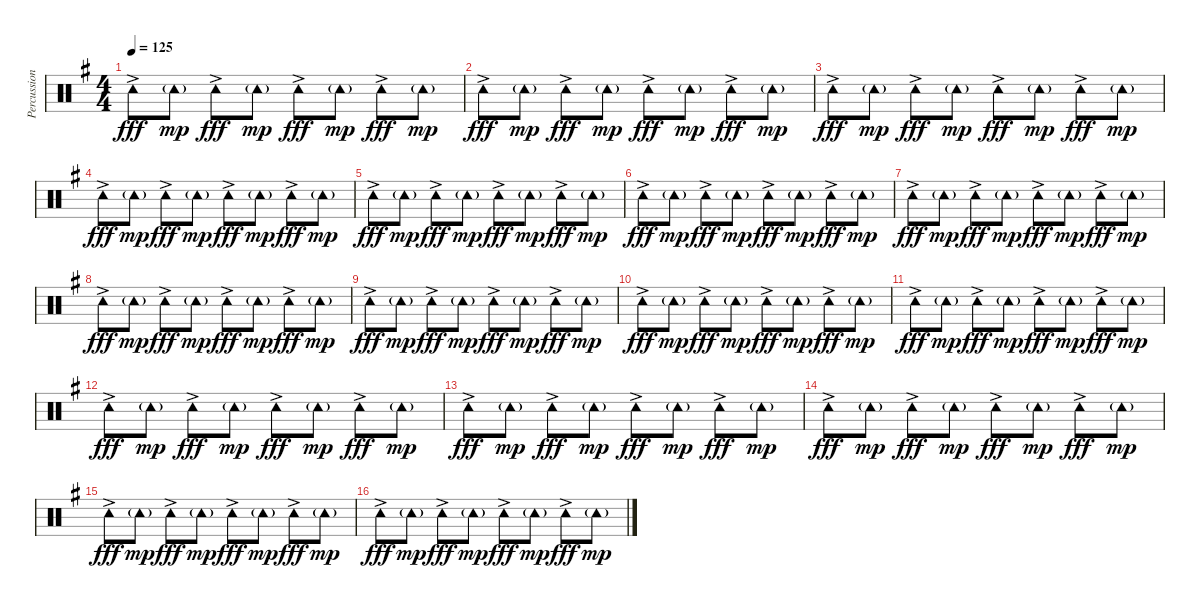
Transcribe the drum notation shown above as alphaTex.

\track ("Percussion" "Percussion") {instrument percussion}
\staff {score}
\articulation defaults
\ts (4 4)
\tempo 125
\clef neutral
\ks g "Tambourine (hit)"{ac}.8{dy fff} "Tambourine (hit)"{g}.8{dy mp} "Tambourine (hit)"{ac}.8{dy fff} "Tambourine (hit)"{g}.8{dy mp} "Tambourine (hit)"{ac}.8{dy fff} "Tambourine (hit)"{g}.8{dy mp} "Tambourine (hit)"{ac}.8{dy fff} "Tambourine (hit)"{g}.8{dy mp}
|
"Tambourine (hit)"{ac}.8{dy fff} "Tambourine (hit)"{g}.8{dy mp} "Tambourine (hit)"{ac}.8{dy fff} "Tambourine (hit)"{g}.8{dy mp} "Tambourine (hit)"{ac}.8{dy fff} "Tambourine (hit)"{g}.8{dy mp} "Tambourine (hit)"{ac}.8{dy fff} "Tambourine (hit)"{g}.8{dy mp} |
"Tambourine (hit)"{ac}.8{dy fff} "Tambourine (hit)"{g}.8{dy mp} "Tambourine (hit)"{ac}.8{dy fff} "Tambourine (hit)"{g}.8{dy mp} "Tambourine (hit)"{ac}.8{dy fff} "Tambourine (hit)"{g}.8{dy mp} "Tambourine (hit)"{ac}.8{dy fff} "Tambourine (hit)"{g}.8{dy mp} |
"Tambourine (hit)"{ac}.8{dy fff} "Tambourine (hit)"{g}.8{dy mp} "Tambourine (hit)"{ac}.8{dy fff} "Tambourine (hit)"{g}.8{dy mp} "Tambourine (hit)"{ac}.8{dy fff} "Tambourine (hit)"{g}.8{dy mp} "Tambourine (hit)"{ac}.8{dy fff} "Tambourine (hit)"{g}.8{dy mp} |
"Tambourine (hit)"{ac}.8{dy fff} "Tambourine (hit)"{g}.8{dy mp} "Tambourine (hit)"{ac}.8{dy fff} "Tambourine (hit)"{g}.8{dy mp} "Tambourine (hit)"{ac}.8{dy fff} "Tambourine (hit)"{g}.8{dy mp} "Tambourine (hit)"{ac}.8{dy fff} "Tambourine (hit)"{g}.8{dy mp} |
"Tambourine (hit)"{ac}.8{dy fff} "Tambourine (hit)"{g}.8{dy mp} "Tambourine (hit)"{ac}.8{dy fff} "Tambourine (hit)"{g}.8{dy mp} "Tambourine (hit)"{ac}.8{dy fff} "Tambourine (hit)"{g}.8{dy mp} "Tambourine (hit)"{ac}.8{dy fff} "Tambourine (hit)"{g}.8{dy mp} |
"Tambourine (hit)"{ac}.8{dy fff} "Tambourine (hit)"{g}.8{dy mp} "Tambourine (hit)"{ac}.8{dy fff} "Tambourine (hit)"{g}.8{dy mp} "Tambourine (hit)"{ac}.8{dy fff} "Tambourine (hit)"{g}.8{dy mp} "Tambourine (hit)"{ac}.8{dy fff} "Tambourine (hit)"{g}.8{dy mp} |
"Tambourine (hit)"{ac}.8{dy fff} "Tambourine (hit)"{g}.8{dy mp} "Tambourine (hit)"{ac}.8{dy fff} "Tambourine (hit)"{g}.8{dy mp} "Tambourine (hit)"{ac}.8{dy fff} "Tambourine (hit)"{g}.8{dy mp} "Tambourine (hit)"{ac}.8{dy fff} "Tambourine (hit)"{g}.8{dy mp} |
"Tambourine (hit)"{ac}.8{dy fff} "Tambourine (hit)"{g}.8{dy mp} "Tambourine (hit)"{ac}.8{dy fff} "Tambourine (hit)"{g}.8{dy mp} "Tambourine (hit)"{ac}.8{dy fff} "Tambourine (hit)"{g}.8{dy mp} "Tambourine (hit)"{ac}.8{dy fff} "Tambourine (hit)"{g}.8{dy mp} |
"Tambourine (hit)"{ac}.8{dy fff} "Tambourine (hit)"{g}.8{dy mp} "Tambourine (hit)"{ac}.8{dy fff} "Tambourine (hit)"{g}.8{dy mp} "Tambourine (hit)"{ac}.8{dy fff} "Tambourine (hit)"{g}.8{dy mp} "Tambourine (hit)"{ac}.8{dy fff} "Tambourine (hit)"{g}.8{dy mp} |
"Tambourine (hit)"{ac}.8{dy fff} "Tambourine (hit)"{g}.8{dy mp} "Tambourine (hit)"{ac}.8{dy fff} "Tambourine (hit)"{g}.8{dy mp} "Tambourine (hit)"{ac}.8{dy fff} "Tambourine (hit)"{g}.8{dy mp} "Tambourine (hit)"{ac}.8{dy fff} "Tambourine (hit)"{g}.8{dy mp} |
"Tambourine (hit)"{ac}.8{dy fff} "Tambourine (hit)"{g}.8{dy mp} "Tambourine (hit)"{ac}.8{dy fff} "Tambourine (hit)"{g}.8{dy mp} "Tambourine (hit)"{ac}.8{dy fff} "Tambourine (hit)"{g}.8{dy mp} "Tambourine (hit)"{ac}.8{dy fff} "Tambourine (hit)"{g}.8{dy mp} |
"Tambourine (hit)"{ac}.8{dy fff} "Tambourine (hit)"{g}.8{dy mp} "Tambourine (hit)"{ac}.8{dy fff} "Tambourine (hit)"{g}.8{dy mp} "Tambourine (hit)"{ac}.8{dy fff} "Tambourine (hit)"{g}.8{dy mp} "Tambourine (hit)"{ac}.8{dy fff} "Tambourine (hit)"{g}.8{dy mp} |
"Tambourine (hit)"{ac}.8{dy fff} "Tambourine (hit)"{g}.8{dy mp} "Tambourine (hit)"{ac}.8{dy fff} "Tambourine (hit)"{g}.8{dy mp} "Tambourine (hit)"{ac}.8{dy fff} "Tambourine (hit)"{g}.8{dy mp} "Tambourine (hit)"{ac}.8{dy fff} "Tambourine (hit)"{g}.8{dy mp} |
"Tambourine (hit)"{ac}.8{dy fff} "Tambourine (hit)"{g}.8{dy mp} "Tambourine (hit)"{ac}.8{dy fff} "Tambourine (hit)"{g}.8{dy mp} "Tambourine (hit)"{ac}.8{dy fff} "Tambourine (hit)"{g}.8{dy mp} "Tambourine (hit)"{ac}.8{dy fff} "Tambourine (hit)"{g}.8{dy mp} |
"Tambourine (hit)"{ac}.8{dy fff} "Tambourine (hit)"{g}.8{dy mp} "Tambourine (hit)"{ac}.8{dy fff} "Tambourine (hit)"{g}.8{dy mp} "Tambourine (hit)"{ac}.8{dy fff} "Tambourine (hit)"{g}.8{dy mp} "Tambourine (hit)"{ac}.8{dy fff} "Tambourine (hit)"{g}.8{dy mp}
